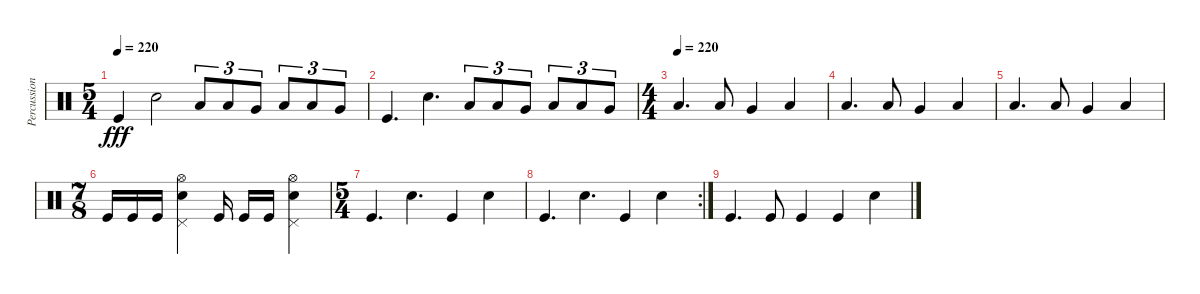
\track ("Percussion" "Percussion") {instrument percussion}
\staff {score}
\articulation defaults
\ts (5 4)
\tempo 220
\clef neutral
\ks c "Kick (hit)".4{dy fff} "Electric Snare (hit)".2 "Low Floor Tom (hit)".8{tu (3 2)} "Low Tom (hit)".8{tu (3 2)} "Very Low Tom (hit)".8{tu (3 2)} "Low Floor Tom (hit)".8{tu (3 2)} "Low Tom (hit)".8{tu (3 2)} "Very Low Tom (hit)".8{tu (3 2)}
|
"Kick (hit)".4{d} "Electric Snare (hit)".4{d} "Low Floor Tom (hit)".8{tu (3 2)} "Low Tom (hit)".8{tu (3 2)} "Very Low Tom (hit)".8{tu (3 2)} "Low Floor Tom (hit)".8{tu (3 2)} "Low Tom (hit)".8{tu (3 2)} "Very Low Tom (hit)".8{tu (3 2)} |
\ts (4 4)
\tempo (220)
"Low Floor Tom (hit)".4{d} "Low Tom (hit)".8 "Very Low Tom (hit)".4 "Low Floor Tom (hit)".4 |
"Low Floor Tom (hit)".4{d} "Low Tom (hit)".8 "Very Low Tom (hit)".4 "Low Floor Tom (hit)".4 |
"Low Floor Tom (hit)".4{d} "Low Tom (hit)".8 "Very Low Tom (hit)".4 "Low Floor Tom (hit)".4 |
\ts (7 8)
"Kick (hit)".16 "Kick (hit)".16 "Kick (hit)".16 ("Pedal Hi-Hat (hit)" "Hi-Hat (open)" "Electric Snare (hit)").4 "Kick (hit)".16 "Kick (hit)".16 "Kick (hit)".16 ("Pedal Hi-Hat (hit)" "Hi-Hat (open)" "Electric Snare (hit)").4 |
\ts (5 4)
"Kick (hit)".4{d} "Electric Snare (hit)".4{d} "Kick (hit)".4 "Electric Snare (hit)".4 |
\rc 2 "Kick (hit)".4{d} "Electric Snare (hit)".4{d} "Kick (hit)".4 "Electric Snare (hit)".4
|
"Kick (hit)".4{d} "Kick (hit)".8 "Kick (hit)".4 "Kick (hit)".4 "Electric Snare (hit)".4
